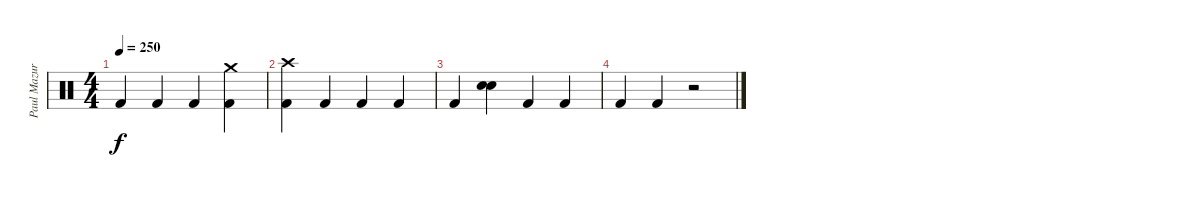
\track ("Paul Mazurkiewicz" "Paul Mazur") {instrument percussion}
\staff {score}
\articulation defaults
\ts (4 4)
\tempo 250
\clef neutral
\ks c "Kick (hit) 2".4{dy f} "Kick (hit) 2".4 "Kick (hit) 2".4
("Crash medium (hit)" "Kick (hit) 2").4 |
("Crash high (hit)" "Kick (hit) 2").4 "Kick (hit) 2".4 "Kick (hit) 2".4 "Kick (hit) 2".4 |
"Kick (hit) 2".4 ("Electric Snare (hit)" "Snare (hit) 2").4 "Kick (hit) 2".4 "Kick (hit) 2".4 |
"Kick (hit) 2".4 "Kick (hit) 2".4 r.2
